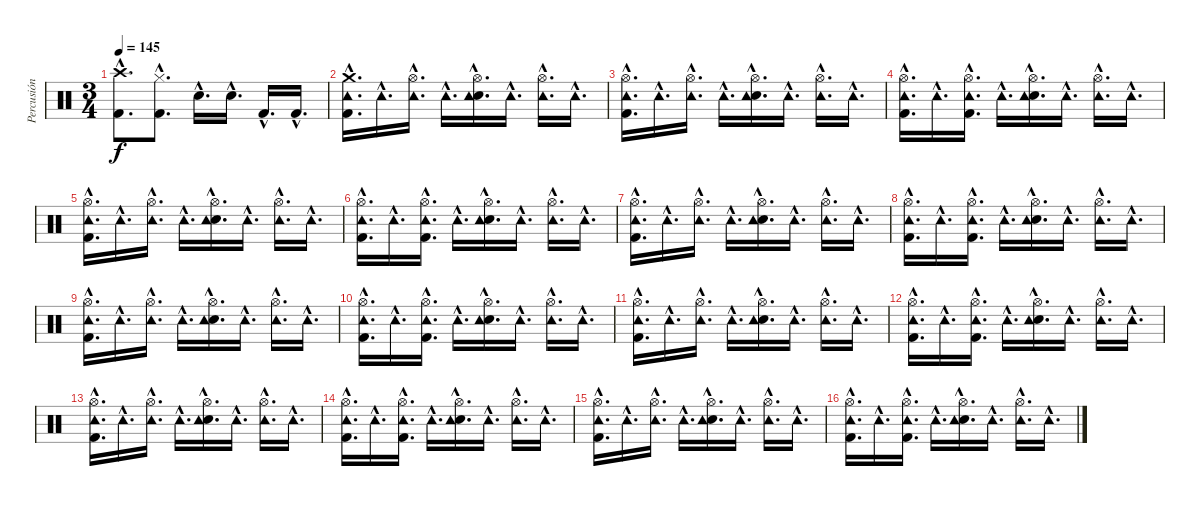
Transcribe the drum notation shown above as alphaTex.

\track ("Percusión" "Percusión") {instrument percussion}
\staff {score}
\articulation defaults
\ts (3 4)
\tempo 145
\clef neutral
\ks c
("Crash high (hit)"{hac} "Kick (hit) 2"{hac}).8{d dy f} ("Hi-Hat (closed)"{hac} "Kick (hit) 2"{hac}).8{d} "Electric Snare (hit)"{hac}.16{d} "Electric Snare (hit)"{hac}.16{d} "Kick (hit) 2"{hac}.16{d} "Kick (hit) 2"{hac}.16{d} |
("Kick (hit) 2"{hac} "Crash medium (hit)"{hac} "Tambourine (hit)"{hac}).16{d} "Tambourine (hit)"{hac}.16{d} ("Hi-Hat (open)"{hac} "Tambourine (hit)"{hac}).16{d} "Tambourine (hit)"{hac}.16{d} ("Hi-Hat (open)"{hac} "Electric Snare (hit)"{hac} "Tambourine (hit)"{hac}).16{d} "Tambourine (hit)"{hac}.16{d} ("Hi-Hat (open)"{hac} "Tambourine (hit)"{hac}).16{d} "Tambourine (hit)"{hac}.16{d} |
("Hi-Hat (open)"{hac} "Kick (hit) 2"{hac} "Tambourine (hit)"{hac}).16{d} "Tambourine (hit)"{hac}.16{d} ("Hi-Hat (open)"{hac} "Tambourine (hit)"{hac}).16{d} "Tambourine (hit)"{hac}.16{d} ("Hi-Hat (open)"{hac} "Electric Snare (hit)"{hac} "Tambourine (hit)"{hac}).16{d} "Tambourine (hit)"{hac}.16{d} ("Hi-Hat (open)"{hac} "Tambourine (hit)"{hac}).16{d} "Tambourine (hit)"{hac}.16{d} |
("Hi-Hat (open)"{hac} "Kick (hit) 2"{hac} "Tambourine (hit)"{hac}).16{d} "Tambourine (hit)"{hac}.16{d} ("Hi-Hat (open)"{hac} "Kick (hit) 2"{hac} "Tambourine (hit)"{hac}).16{d} "Tambourine (hit)"{hac}.16{d} ("Hi-Hat (open)"{hac} "Electric Snare (hit)"{hac} "Tambourine (hit)"{hac}).16{d} "Tambourine (hit)"{hac}.16{d} ("Hi-Hat (open)"{hac} "Tambourine (hit)"{hac}).16{d} "Tambourine (hit)"{hac}.16{d} |
("Hi-Hat (open)"{hac} "Kick (hit) 2"{hac} "Tambourine (hit)"{hac}).16{d} "Tambourine (hit)"{hac}.16{d} ("Hi-Hat (open)"{hac} "Tambourine (hit)"{hac}).16{d} "Tambourine (hit)"{hac}.16{d} ("Hi-Hat (open)"{hac} "Electric Snare (hit)"{hac} "Tambourine (hit)"{hac}).16{d} "Tambourine (hit)"{hac}.16{d} ("Hi-Hat (open)"{hac} "Tambourine (hit)"{hac}).16{d} "Tambourine (hit)"{hac}.16{d} |
("Hi-Hat (open)"{hac} "Kick (hit) 2"{hac} "Tambourine (hit)"{hac}).16{d} "Tambourine (hit)"{hac}.16{d} ("Hi-Hat (open)"{hac} "Kick (hit) 2"{hac} "Tambourine (hit)"{hac}).16{d} "Tambourine (hit)"{hac}.16{d} ("Hi-Hat (open)"{hac} "Electric Snare (hit)"{hac} "Tambourine (hit)"{hac}).16{d} "Tambourine (hit)"{hac}.16{d} ("Hi-Hat (open)"{hac} "Tambourine (hit)"{hac}).16{d} "Tambourine (hit)"{hac}.16{d} |
("Hi-Hat (open)"{hac} "Kick (hit) 2"{hac} "Tambourine (hit)"{hac}).16{d} "Tambourine (hit)"{hac}.16{d} ("Hi-Hat (open)"{hac} "Tambourine (hit)"{hac}).16{d} "Tambourine (hit)"{hac}.16{d} ("Hi-Hat (open)"{hac} "Electric Snare (hit)"{hac} "Tambourine (hit)"{hac}).16{d} "Tambourine (hit)"{hac}.16{d} ("Hi-Hat (open)"{hac} "Tambourine (hit)"{hac}).16{d} "Tambourine (hit)"{hac}.16{d} |
("Hi-Hat (open)"{hac} "Kick (hit) 2"{hac} "Tambourine (hit)"{hac}).16{d} "Tambourine (hit)"{hac}.16{d} ("Hi-Hat (open)"{hac} "Kick (hit) 2"{hac} "Tambourine (hit)"{hac}).16{d} "Tambourine (hit)"{hac}.16{d} ("Hi-Hat (open)"{hac} "Electric Snare (hit)"{hac} "Tambourine (hit)"{hac}).16{d} "Tambourine (hit)"{hac}.16{d} ("Hi-Hat (open)"{hac} "Tambourine (hit)"{hac}).16{d} "Tambourine (hit)"{hac}.16{d} |
("Hi-Hat (open)"{hac} "Kick (hit) 2"{hac} "Tambourine (hit)"{hac}).16{d} "Tambourine (hit)"{hac}.16{d} ("Hi-Hat (open)"{hac} "Tambourine (hit)"{hac}).16{d} "Tambourine (hit)"{hac}.16{d} ("Hi-Hat (open)"{hac} "Electric Snare (hit)"{hac} "Tambourine (hit)"{hac}).16{d} "Tambourine (hit)"{hac}.16{d} ("Hi-Hat (open)"{hac} "Tambourine (hit)"{hac}).16{d} "Tambourine (hit)"{hac}.16{d} |
("Hi-Hat (open)"{hac} "Kick (hit) 2"{hac} "Tambourine (hit)"{hac}).16{d} "Tambourine (hit)"{hac}.16{d} ("Hi-Hat (open)"{hac} "Kick (hit) 2"{hac} "Tambourine (hit)"{hac}).16{d} "Tambourine (hit)"{hac}.16{d} ("Hi-Hat (open)"{hac} "Electric Snare (hit)"{hac} "Tambourine (hit)"{hac}).16{d} "Tambourine (hit)"{hac}.16{d} ("Hi-Hat (open)"{hac} "Tambourine (hit)"{hac}).16{d} "Tambourine (hit)"{hac}.16{d} |
("Hi-Hat (open)"{hac} "Kick (hit) 2"{hac} "Tambourine (hit)"{hac}).16{d} "Tambourine (hit)"{hac}.16{d} ("Hi-Hat (open)"{hac} "Tambourine (hit)"{hac}).16{d} "Tambourine (hit)"{hac}.16{d} ("Hi-Hat (open)"{hac} "Electric Snare (hit)"{hac} "Tambourine (hit)"{hac}).16{d} "Tambourine (hit)"{hac}.16{d} ("Hi-Hat (open)"{hac} "Tambourine (hit)"{hac}).16{d} "Tambourine (hit)"{hac}.16{d} |
("Hi-Hat (open)"{hac} "Kick (hit) 2"{hac} "Tambourine (hit)"{hac}).16{d} "Tambourine (hit)"{hac}.16{d} ("Hi-Hat (open)"{hac} "Kick (hit) 2"{hac} "Tambourine (hit)"{hac}).16{d} "Tambourine (hit)"{hac}.16{d} ("Hi-Hat (open)"{hac} "Electric Snare (hit)"{hac} "Tambourine (hit)"{hac}).16{d} "Tambourine (hit)"{hac}.16{d} ("Hi-Hat (open)"{hac} "Tambourine (hit)"{hac}).16{d} "Tambourine (hit)"{hac}.16{d} |
("Hi-Hat (open)"{hac} "Kick (hit) 2"{hac} "Tambourine (hit)"{hac}).16{d} "Tambourine (hit)"{hac}.16{d} ("Hi-Hat (open)"{hac} "Tambourine (hit)"{hac}).16{d} "Tambourine (hit)"{hac}.16{d} ("Hi-Hat (open)"{hac} "Electric Snare (hit)"{hac} "Tambourine (hit)"{hac}).16{d} "Tambourine (hit)"{hac}.16{d} ("Hi-Hat (open)"{hac} "Tambourine (hit)"{hac}).16{d} "Tambourine (hit)"{hac}.16{d} |
("Hi-Hat (open)"{hac} "Kick (hit) 2"{hac} "Tambourine (hit)"{hac}).16{d} "Tambourine (hit)"{hac}.16{d} ("Hi-Hat (open)"{hac} "Kick (hit) 2"{hac} "Tambourine (hit)"{hac}).16{d} "Tambourine (hit)"{hac}.16{d} ("Hi-Hat (open)"{hac} "Electric Snare (hit)"{hac} "Tambourine (hit)"{hac}).16{d} "Tambourine (hit)"{hac}.16{d} ("Hi-Hat (open)"{hac} "Tambourine (hit)"{hac}).16{d} "Tambourine (hit)"{hac}.16{d} |
("Hi-Hat (open)"{hac} "Kick (hit) 2"{hac} "Tambourine (hit)"{hac}).16{d} "Tambourine (hit)"{hac}.16{d} ("Hi-Hat (open)"{hac} "Tambourine (hit)"{hac}).16{d} "Tambourine (hit)"{hac}.16{d} ("Hi-Hat (open)"{hac} "Electric Snare (hit)"{hac} "Tambourine (hit)"{hac}).16{d} "Tambourine (hit)"{hac}.16{d} ("Hi-Hat (open)"{hac} "Tambourine (hit)"{hac}).16{d} "Tambourine (hit)"{hac}.16{d} |
("Hi-Hat (open)"{hac} "Kick (hit) 2"{hac} "Tambourine (hit)"{hac}).16{d} "Tambourine (hit)"{hac}.16{d} ("Hi-Hat (open)"{hac} "Kick (hit) 2"{hac} "Tambourine (hit)"{hac}).16{d} "Tambourine (hit)"{hac}.16{d} ("Hi-Hat (open)"{hac} "Electric Snare (hit)"{hac} "Tambourine (hit)"{hac}).16{d} "Tambourine (hit)"{hac}.16{d} ("Hi-Hat (open)"{hac} "Tambourine (hit)"{hac}).16{d} "Tambourine (hit)"{hac}.16{d}
